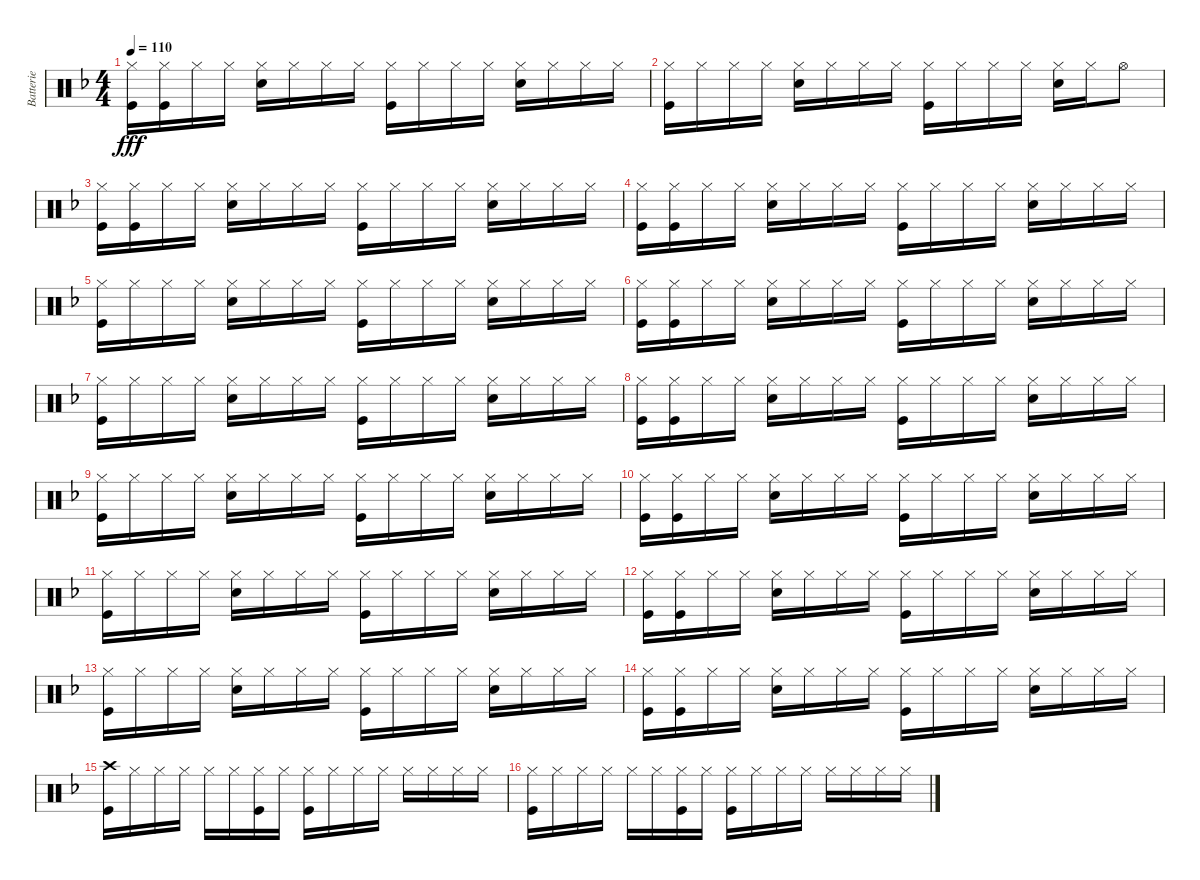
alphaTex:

\track ("Batterie" "Batterie") {instrument percussion}
\staff {score}
\articulation defaults
\ts (4 4)
\tempo 110
\clef neutral
\ks f
("Hi-Hat (closed)" "Kick (hit)").16{dy fff} ("Hi-Hat (closed)" "Kick (hit)").16 "Hi-Hat (closed)".16 "Hi-Hat (closed)".16 ("Hi-Hat (closed)" "Snare (hit) 2").16 "Hi-Hat (closed)".16 "Hi-Hat (closed)".16 "Hi-Hat (closed)".16 ("Hi-Hat (closed)" "Kick (hit)").16 "Hi-Hat (closed)".16 "Hi-Hat (closed)".16 "Hi-Hat (closed)".16 ("Hi-Hat (closed)" "Snare (hit) 2").16 "Hi-Hat (closed)".16 "Hi-Hat (closed)".16 "Hi-Hat (closed)".16 |
("Hi-Hat (closed)" "Kick (hit)").16 "Hi-Hat (closed)".16 "Hi-Hat (closed)".16 "Hi-Hat (closed)".16 ("Hi-Hat (closed)" "Snare (hit) 2").16 "Hi-Hat (closed)".16 "Hi-Hat (closed)".16 "Hi-Hat (closed)".16 ("Hi-Hat (closed)" "Kick (hit)").16 "Hi-Hat (closed)".16 "Hi-Hat (closed)".16 "Hi-Hat (closed)".16 ("Hi-Hat (closed)" "Snare (hit) 2").16 "Hi-Hat (closed)".16 "Hi-Hat (open)".8 |
("Hi-Hat (closed)" "Kick (hit)").16 ("Hi-Hat (closed)" "Kick (hit)").16 "Hi-Hat (closed)".16 "Hi-Hat (closed)".16 ("Hi-Hat (closed)" "Snare (hit) 2").16 "Hi-Hat (closed)".16 "Hi-Hat (closed)".16 "Hi-Hat (closed)".16 ("Hi-Hat (closed)" "Kick (hit)").16 "Hi-Hat (closed)".16 "Hi-Hat (closed)".16 "Hi-Hat (closed)".16 ("Hi-Hat (closed)" "Snare (hit) 2").16 "Hi-Hat (closed)".16 "Hi-Hat (closed)".16 "Hi-Hat (closed)".16 |
("Hi-Hat (closed)" "Kick (hit)").16 ("Hi-Hat (closed)" "Kick (hit)").16 "Hi-Hat (closed)".16 "Hi-Hat (closed)".16 ("Hi-Hat (closed)" "Snare (hit) 2").16 "Hi-Hat (closed)".16 "Hi-Hat (closed)".16 "Hi-Hat (closed)".16 ("Hi-Hat (closed)" "Kick (hit)").16 "Hi-Hat (closed)".16 "Hi-Hat (closed)".16 "Hi-Hat (closed)".16 ("Hi-Hat (closed)" "Snare (hit) 2").16 "Hi-Hat (closed)".16 "Hi-Hat (closed)".16 "Hi-Hat (closed)".16 |
("Hi-Hat (closed)" "Kick (hit)").16 "Hi-Hat (closed)".16 "Hi-Hat (closed)".16 "Hi-Hat (closed)".16 ("Hi-Hat (closed)" "Snare (hit) 2").16 "Hi-Hat (closed)".16 "Hi-Hat (closed)".16 "Hi-Hat (closed)".16 ("Hi-Hat (closed)" "Kick (hit)").16 "Hi-Hat (closed)".16 "Hi-Hat (closed)".16 "Hi-Hat (closed)".16 ("Hi-Hat (closed)" "Snare (hit) 2").16 "Hi-Hat (closed)".16 "Hi-Hat (closed)".16 "Hi-Hat (closed)".16 |
("Hi-Hat (closed)" "Kick (hit)").16 ("Hi-Hat (closed)" "Kick (hit)").16 "Hi-Hat (closed)".16 "Hi-Hat (closed)".16 ("Hi-Hat (closed)" "Snare (hit) 2").16 "Hi-Hat (closed)".16 "Hi-Hat (closed)".16 "Hi-Hat (closed)".16 ("Hi-Hat (closed)" "Kick (hit)").16 "Hi-Hat (closed)".16 "Hi-Hat (closed)".16 "Hi-Hat (closed)".16 ("Hi-Hat (closed)" "Snare (hit) 2").16 "Hi-Hat (closed)".16 "Hi-Hat (closed)".16 "Hi-Hat (closed)".16 |
("Hi-Hat (closed)" "Kick (hit)").16 "Hi-Hat (closed)".16 "Hi-Hat (closed)".16 "Hi-Hat (closed)".16 ("Hi-Hat (closed)" "Snare (hit) 2").16 "Hi-Hat (closed)".16 "Hi-Hat (closed)".16 "Hi-Hat (closed)".16 ("Hi-Hat (closed)" "Kick (hit)").16 "Hi-Hat (closed)".16 "Hi-Hat (closed)".16 "Hi-Hat (closed)".16 ("Hi-Hat (closed)" "Snare (hit) 2").16 "Hi-Hat (closed)".16 "Hi-Hat (closed)".16 "Hi-Hat (closed)".16 |
("Hi-Hat (closed)" "Kick (hit)").16 ("Hi-Hat (closed)" "Kick (hit)").16 "Hi-Hat (closed)".16 "Hi-Hat (closed)".16 ("Hi-Hat (closed)" "Snare (hit) 2").16 "Hi-Hat (closed)".16 "Hi-Hat (closed)".16 "Hi-Hat (closed)".16 ("Hi-Hat (closed)" "Kick (hit)").16 "Hi-Hat (closed)".16 "Hi-Hat (closed)".16 "Hi-Hat (closed)".16 ("Hi-Hat (closed)" "Snare (hit) 2").16 "Hi-Hat (closed)".16 "Hi-Hat (closed)".16 "Hi-Hat (closed)".16 |
("Hi-Hat (closed)" "Kick (hit)").16 "Hi-Hat (closed)".16 "Hi-Hat (closed)".16 "Hi-Hat (closed)".16 ("Hi-Hat (closed)" "Snare (hit) 2").16 "Hi-Hat (closed)".16 "Hi-Hat (closed)".16 "Hi-Hat (closed)".16 ("Hi-Hat (closed)" "Kick (hit)").16 "Hi-Hat (closed)".16 "Hi-Hat (closed)".16 "Hi-Hat (closed)".16 ("Hi-Hat (closed)" "Snare (hit) 2").16 "Hi-Hat (closed)".16 "Hi-Hat (closed)".16 "Hi-Hat (closed)".16 |
("Hi-Hat (closed)" "Kick (hit)").16 ("Hi-Hat (closed)" "Kick (hit)").16 "Hi-Hat (closed)".16 "Hi-Hat (closed)".16 ("Hi-Hat (closed)" "Snare (hit) 2").16 "Hi-Hat (closed)".16 "Hi-Hat (closed)".16 "Hi-Hat (closed)".16 ("Hi-Hat (closed)" "Kick (hit)").16 "Hi-Hat (closed)".16 "Hi-Hat (closed)".16 "Hi-Hat (closed)".16 ("Hi-Hat (closed)" "Snare (hit) 2").16 "Hi-Hat (closed)".16 "Hi-Hat (closed)".16 "Hi-Hat (closed)".16 |
("Hi-Hat (closed)" "Kick (hit)").16 "Hi-Hat (closed)".16 "Hi-Hat (closed)".16 "Hi-Hat (closed)".16 ("Hi-Hat (closed)" "Snare (hit) 2").16 "Hi-Hat (closed)".16 "Hi-Hat (closed)".16 "Hi-Hat (closed)".16 ("Hi-Hat (closed)" "Kick (hit)").16 "Hi-Hat (closed)".16 "Hi-Hat (closed)".16 "Hi-Hat (closed)".16 ("Hi-Hat (closed)" "Snare (hit) 2").16 "Hi-Hat (closed)".16 "Hi-Hat (closed)".16 "Hi-Hat (closed)".16 |
("Hi-Hat (closed)" "Kick (hit)").16 ("Hi-Hat (closed)" "Kick (hit)").16 "Hi-Hat (closed)".16 "Hi-Hat (closed)".16 ("Hi-Hat (closed)" "Snare (hit) 2").16 "Hi-Hat (closed)".16 "Hi-Hat (closed)".16 "Hi-Hat (closed)".16 ("Hi-Hat (closed)" "Kick (hit)").16 "Hi-Hat (closed)".16 "Hi-Hat (closed)".16 "Hi-Hat (closed)".16 ("Hi-Hat (closed)" "Snare (hit) 2").16 "Hi-Hat (closed)".16 "Hi-Hat (closed)".16 "Hi-Hat (closed)".16 |
("Hi-Hat (closed)" "Kick (hit)").16 "Hi-Hat (closed)".16 "Hi-Hat (closed)".16 "Hi-Hat (closed)".16 ("Hi-Hat (closed)" "Snare (hit) 2").16 "Hi-Hat (closed)".16 "Hi-Hat (closed)".16 "Hi-Hat (closed)".16 ("Hi-Hat (closed)" "Kick (hit)").16 "Hi-Hat (closed)".16 "Hi-Hat (closed)".16 "Hi-Hat (closed)".16 ("Hi-Hat (closed)" "Snare (hit) 2").16 "Hi-Hat (closed)".16 "Hi-Hat (closed)".16 "Hi-Hat (closed)".16 |
("Hi-Hat (closed)" "Kick (hit)").16 ("Hi-Hat (closed)" "Kick (hit)").16 "Hi-Hat (closed)".16 "Hi-Hat (closed)".16 ("Hi-Hat (closed)" "Snare (hit) 2").16 "Hi-Hat (closed)".16 "Hi-Hat (closed)".16 "Hi-Hat (closed)".16 ("Hi-Hat (closed)" "Kick (hit)").16 "Hi-Hat (closed)".16 "Hi-Hat (closed)".16 "Hi-Hat (closed)".16 ("Hi-Hat (closed)" "Snare (hit) 2").16 "Hi-Hat (closed)".16 "Hi-Hat (closed)".16 "Hi-Hat (closed)".16 |
("Crash high (hit)" "Kick (hit)").16 "Hi-Hat (closed)".16 "Hi-Hat (closed)".16 "Hi-Hat (closed)".16 "Hi-Hat (closed)".16 "Hi-Hat (closed)".16 ("Hi-Hat (closed)" "Kick (hit)").16 "Hi-Hat (closed)".16 ("Hi-Hat (closed)" "Kick (hit)").16 "Hi-Hat (closed)".16 "Hi-Hat (closed)".16 "Hi-Hat (closed)".16 "Hi-Hat (closed)".16 "Hi-Hat (closed)".16 "Hi-Hat (closed)".16 "Hi-Hat (closed)".16 |
("Hi-Hat (closed)" "Kick (hit)").16 "Hi-Hat (closed)".16 "Hi-Hat (closed)".16 "Hi-Hat (closed)".16 "Hi-Hat (closed)".16 "Hi-Hat (closed)".16 ("Hi-Hat (closed)" "Kick (hit)").16 "Hi-Hat (closed)".16 ("Hi-Hat (closed)" "Kick (hit)").16 "Hi-Hat (closed)".16 "Hi-Hat (closed)".16 "Hi-Hat (closed)".16 "Hi-Hat (closed)".16 "Hi-Hat (closed)".16 "Hi-Hat (closed)".16 "Hi-Hat (closed)".16
